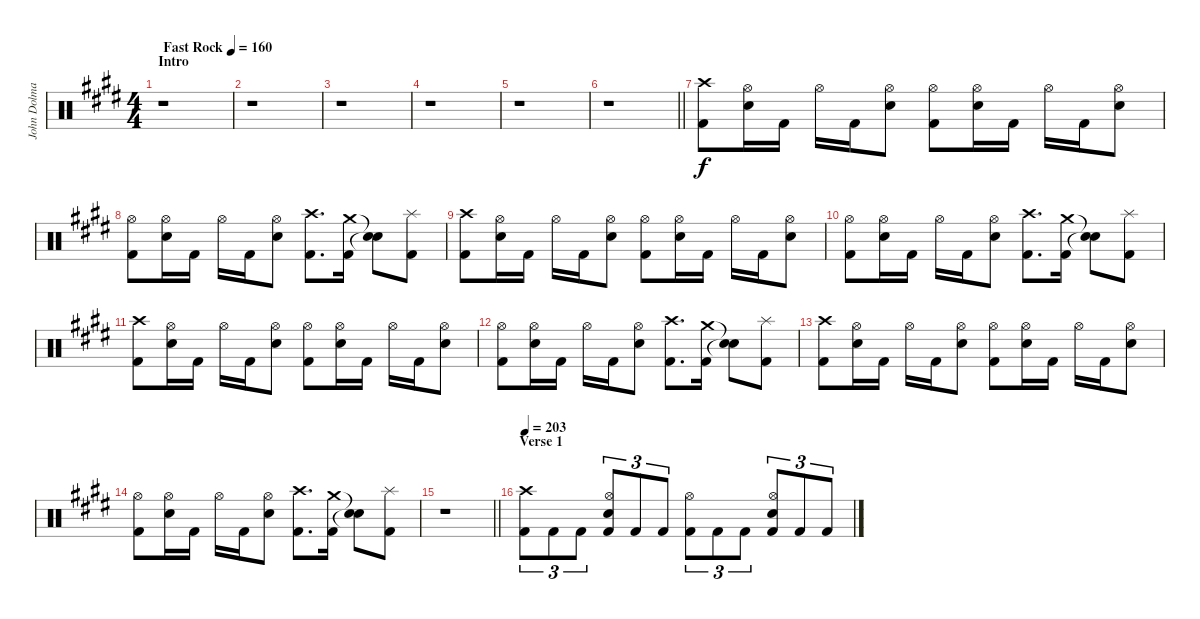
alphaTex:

\track ("John Dolmayan [Drums]" "John Dolma") {instrument percussion}
\staff {score}
\articulation defaults
\ts (4 4)
\section ("" "Intro")
\tempo (160 "Fast Rock")
\clef neutral
\ks c#minor
r.1{dy f} |
r.1 |
r.1 |
r.1 |
r.1 |
\barLineRight lightlight
r.1 |
("Crash high (hit)" "Kick (hit) 2").8 ("Hi-Hat (open)" "Electric Snare (hit)").16 "Kick (hit) 2".16 "Hi-Hat (open)".16 "Kick (hit) 2".16 ("Hi-Hat (open)" "Electric Snare (hit)").8 ("Hi-Hat (open)" "Kick (hit) 2").8 ("Hi-Hat (open)" "Electric Snare (hit)").16 "Kick (hit) 2".16 "Hi-Hat (open)".16 "Kick (hit) 2".16 ("Hi-Hat (open)" "Electric Snare (hit)").8 |
("Hi-Hat (open)" "Kick (hit) 2").8 ("Hi-Hat (open)" "Electric Snare (hit)").16 "Kick (hit) 2".16 "Hi-Hat (open)".16 "Kick (hit) 2".16 ("Hi-Hat (open)" "Electric Snare (hit)").8 ("Crash high (hit)" "Kick (hit) 2").8{d} ("Crash medium (hit)" "Kick (hit) 2").16 ("Snare (hit)"{t} "Snare (hit)"{t}).8 ("Splash (hit)" "Kick (hit) 2").8 |
("Crash high (hit)" "Kick (hit) 2").8 ("Hi-Hat (open)" "Electric Snare (hit)").16 "Kick (hit) 2".16 "Hi-Hat (open)".16 "Kick (hit) 2".16 ("Hi-Hat (open)" "Electric Snare (hit)").8 ("Hi-Hat (open)" "Kick (hit) 2").8 ("Hi-Hat (open)" "Electric Snare (hit)").16 "Kick (hit) 2".16 "Hi-Hat (open)".16 "Kick (hit) 2".16 ("Hi-Hat (open)" "Electric Snare (hit)").8 |
("Hi-Hat (open)" "Kick (hit) 2").8 ("Hi-Hat (open)" "Electric Snare (hit)").16 "Kick (hit) 2".16 "Hi-Hat (open)".16 "Kick (hit) 2".16 ("Hi-Hat (open)" "Electric Snare (hit)").8 ("Crash high (hit)" "Kick (hit) 2").8{d} ("Crash medium (hit)" "Kick (hit) 2").16 ("Snare (hit)"{t} "Snare (hit)"{t}).8 ("Splash (hit)" "Kick (hit) 2").8 |
("Crash high (hit)" "Kick (hit) 2").8 ("Hi-Hat (open)" "Electric Snare (hit)").16 "Kick (hit) 2".16 "Hi-Hat (open)".16 "Kick (hit) 2".16 ("Hi-Hat (open)" "Electric Snare (hit)").8 ("Hi-Hat (open)" "Kick (hit) 2").8 ("Hi-Hat (open)" "Electric Snare (hit)").16 "Kick (hit) 2".16 "Hi-Hat (open)".16 "Kick (hit) 2".16 ("Hi-Hat (open)" "Electric Snare (hit)").8 |
("Hi-Hat (open)" "Kick (hit) 2").8 ("Hi-Hat (open)" "Electric Snare (hit)").16 "Kick (hit) 2".16 "Hi-Hat (open)".16 "Kick (hit) 2".16 ("Hi-Hat (open)" "Electric Snare (hit)").8 ("Crash high (hit)" "Kick (hit) 2").8{d} ("Crash medium (hit)" "Kick (hit) 2").16 ("Snare (hit)"{t} "Snare (hit)"{t}).8 ("Splash (hit)" "Kick (hit) 2").8 |
("Crash high (hit)" "Kick (hit) 2").8 ("Hi-Hat (open)" "Electric Snare (hit)").16 "Kick (hit) 2".16 "Hi-Hat (open)".16 "Kick (hit) 2".16 ("Hi-Hat (open)" "Electric Snare (hit)").8 ("Hi-Hat (open)" "Kick (hit) 2").8 ("Hi-Hat (open)" "Electric Snare (hit)").16 "Kick (hit) 2".16 "Hi-Hat (open)".16 "Kick (hit) 2".16 ("Hi-Hat (open)" "Electric Snare (hit)").8 |
("Hi-Hat (open)" "Kick (hit) 2").8 ("Hi-Hat (open)" "Electric Snare (hit)").16 "Kick (hit) 2".16 "Hi-Hat (open)".16 "Kick (hit) 2".16 ("Hi-Hat (open)" "Electric Snare (hit)").8 ("Crash high (hit)" "Kick (hit) 2").8{d} ("Crash medium (hit)" "Kick (hit) 2").16 ("Snare (hit)"{t} "Snare (hit)"{t}).8 ("Splash (hit)" "Kick (hit) 2").8 |
\barLineRight lightlight
r.1 |
\section ("" "Verse 1")
\tempo 203
("Crash high (hit)" "Kick (hit) 2").8{tu (3 2)} "Kick (hit) 2".8{tu (3 2)} "Kick (hit) 2".8{tu (3 2)} ("Hi-Hat (open)" "Electric Snare (hit)" "Kick (hit) 2").8{tu (3 2)} "Kick (hit) 2".8{tu (3 2)} "Kick (hit) 2".8{tu (3 2)} ("Hi-Hat (open)" "Kick (hit) 2").8{tu (3 2)} "Kick (hit) 2".8{tu (3 2)} "Kick (hit) 2".8{tu (3 2)} ("Hi-Hat (open)" "Electric Snare (hit)" "Kick (hit) 2").8{tu (3 2)} "Kick (hit) 2".8{tu (3 2)} "Kick (hit) 2".8{tu (3 2)}
